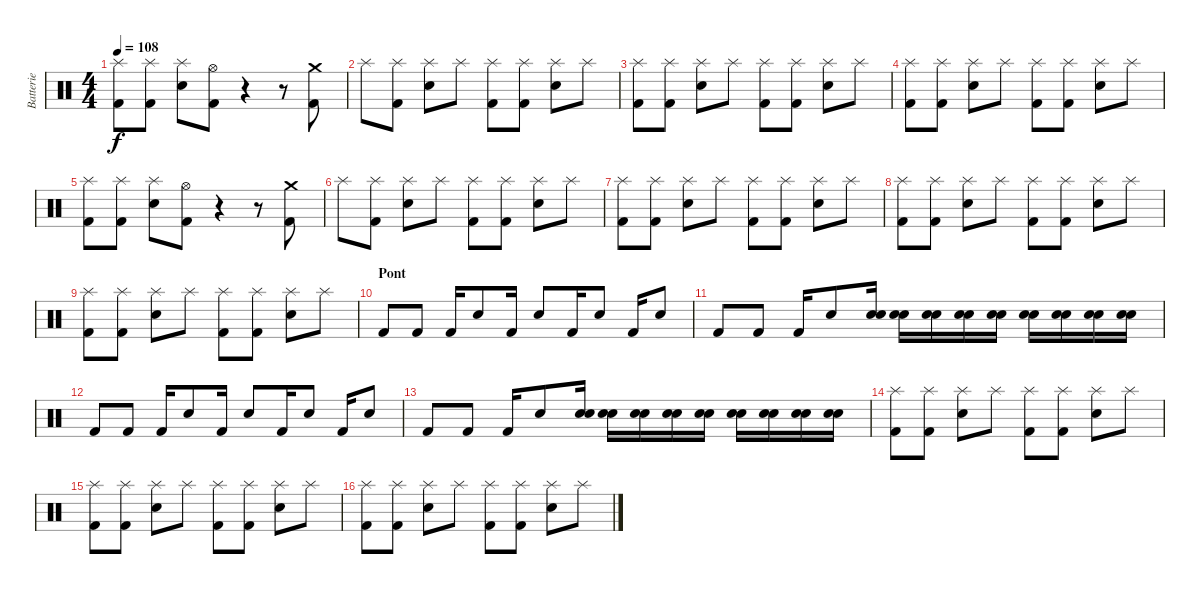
\track ("Batterie" "Batterie") {instrument percussion}
\staff {score}
\articulation defaults
\ts (4 4)
\tempo 108
\clef neutral
\ks c
("Splash (hit)" "Kick (hit) 2").8{dy f} ("Splash (hit)" "Kick (hit) 2").8 ("Electric Snare (hit)" "Splash (hit)").8 ("Hi-Hat (open)" "Kick (hit) 2").8 r.4 r.8 ("Crash medium (hit)" "Kick (hit) 2").8 |
"Splash (hit)".8 ("Splash (hit)" "Kick (hit) 2").8 ("Electric Snare (hit)" "Splash (hit)").8 "Splash (hit)".8 ("Splash (hit)" "Kick (hit) 2").8 ("Splash (hit)" "Kick (hit) 2").8 ("Electric Snare (hit)" "Splash (hit)").8 "Splash (hit)".8 |
("Splash (hit)" "Kick (hit) 2").8 ("Splash (hit)" "Kick (hit) 2").8 ("Electric Snare (hit)" "Splash (hit)").8 "Splash (hit)".8 ("Splash (hit)" "Kick (hit) 2").8 ("Splash (hit)" "Kick (hit) 2").8 ("Electric Snare (hit)" "Splash (hit)").8 "Splash (hit)".8 |
("Splash (hit)" "Kick (hit) 2").8 ("Splash (hit)" "Kick (hit) 2").8 ("Electric Snare (hit)" "Splash (hit)").8 "Splash (hit)".8 ("Splash (hit)" "Kick (hit) 2").8 ("Splash (hit)" "Kick (hit) 2").8 ("Electric Snare (hit)" "Splash (hit)").8 "Splash (hit)".8 |
("Splash (hit)" "Kick (hit) 2").8 ("Splash (hit)" "Kick (hit) 2").8 ("Electric Snare (hit)" "Splash (hit)").8 ("Hi-Hat (open)" "Kick (hit) 2").8 r.4 r.8 ("Crash medium (hit)" "Kick (hit) 2").8 |
"Splash (hit)".8 ("Splash (hit)" "Kick (hit) 2").8 ("Electric Snare (hit)" "Splash (hit)").8 "Splash (hit)".8 ("Splash (hit)" "Kick (hit) 2").8 ("Splash (hit)" "Kick (hit) 2").8 ("Electric Snare (hit)" "Splash (hit)").8 "Splash (hit)".8 |
("Splash (hit)" "Kick (hit) 2").8 ("Splash (hit)" "Kick (hit) 2").8 ("Electric Snare (hit)" "Splash (hit)").8 "Splash (hit)".8 ("Splash (hit)" "Kick (hit) 2").8 ("Splash (hit)" "Kick (hit) 2").8 ("Electric Snare (hit)" "Splash (hit)").8 "Splash (hit)".8 |
("Splash (hit)" "Kick (hit) 2").8 ("Splash (hit)" "Kick (hit) 2").8 ("Electric Snare (hit)" "Splash (hit)").8 "Splash (hit)".8 ("Splash (hit)" "Kick (hit) 2").8 ("Splash (hit)" "Kick (hit) 2").8 ("Electric Snare (hit)" "Splash (hit)").8 "Splash (hit)".8 |
("Splash (hit)" "Kick (hit) 2").8 ("Splash (hit)" "Kick (hit) 2").8 ("Electric Snare (hit)" "Splash (hit)").8 "Splash (hit)".8 ("Splash (hit)" "Kick (hit) 2").8 ("Splash (hit)" "Kick (hit) 2").8 ("Electric Snare (hit)" "Splash (hit)").8 "Splash (hit)".8 |
\section ("" "Pont")
"Kick (hit) 2".8 "Kick (hit) 2".8 "Kick (hit) 2".16 "Electric Snare (hit)".8 "Kick (hit) 2".16 "Electric Snare (hit)".8 "Kick (hit) 2".16 "Electric Snare (hit)".8 "Kick (hit) 2".16 "Electric Snare (hit)".8 |
"Kick (hit) 2".8 "Kick (hit) 2".8 "Kick (hit) 2".16 "Electric Snare (hit)".8 ("Electric Snare (hit)" "Electric Snare (hit)").16 ("Electric Snare (hit)" "Electric Snare (hit)").16 ("Electric Snare (hit)" "Electric Snare (hit)").16 ("Electric Snare (hit)" "Electric Snare (hit)").16 ("Electric Snare (hit)" "Electric Snare (hit)").16 ("Electric Snare (hit)" "Electric Snare (hit)").16 ("Electric Snare (hit)" "Electric Snare (hit)").16 ("Electric Snare (hit)" "Electric Snare (hit)").16 ("Electric Snare (hit)" "Electric Snare (hit)").16 |
"Kick (hit) 2".8 "Kick (hit) 2".8 "Kick (hit) 2".16 "Electric Snare (hit)".8 "Kick (hit) 2".16 "Electric Snare (hit)".8 "Kick (hit) 2".16 "Electric Snare (hit)".8 "Kick (hit) 2".16 "Electric Snare (hit)".8 |
"Kick (hit) 2".8 "Kick (hit) 2".8 "Kick (hit) 2".16 "Electric Snare (hit)".8 ("Electric Snare (hit)" "Electric Snare (hit)").16 ("Electric Snare (hit)" "Electric Snare (hit)").16 ("Electric Snare (hit)" "Electric Snare (hit)").16 ("Electric Snare (hit)" "Electric Snare (hit)").16 ("Electric Snare (hit)" "Electric Snare (hit)").16 ("Electric Snare (hit)" "Electric Snare (hit)").16 ("Electric Snare (hit)" "Electric Snare (hit)").16 ("Electric Snare (hit)" "Electric Snare (hit)").16 ("Electric Snare (hit)" "Electric Snare (hit)").16 |
("Splash (hit)" "Kick (hit) 2").8 ("Splash (hit)" "Kick (hit) 2").8 ("Electric Snare (hit)" "Splash (hit)").8 "Splash (hit)".8 ("Splash (hit)" "Kick (hit) 2").8 ("Splash (hit)" "Kick (hit) 2").8 ("Electric Snare (hit)" "Splash (hit)").8 "Splash (hit)".8 |
("Splash (hit)" "Kick (hit) 2").8 ("Splash (hit)" "Kick (hit) 2").8 ("Electric Snare (hit)" "Splash (hit)").8 "Splash (hit)".8 ("Splash (hit)" "Kick (hit) 2").8 ("Splash (hit)" "Kick (hit) 2").8 ("Electric Snare (hit)" "Splash (hit)").8 "Splash (hit)".8 |
("Splash (hit)" "Kick (hit) 2").8 ("Splash (hit)" "Kick (hit) 2").8 ("Electric Snare (hit)" "Splash (hit)").8 "Splash (hit)".8 ("Splash (hit)" "Kick (hit) 2").8 ("Splash (hit)" "Kick (hit) 2").8 ("Electric Snare (hit)" "Splash (hit)").8 "Splash (hit)".8
